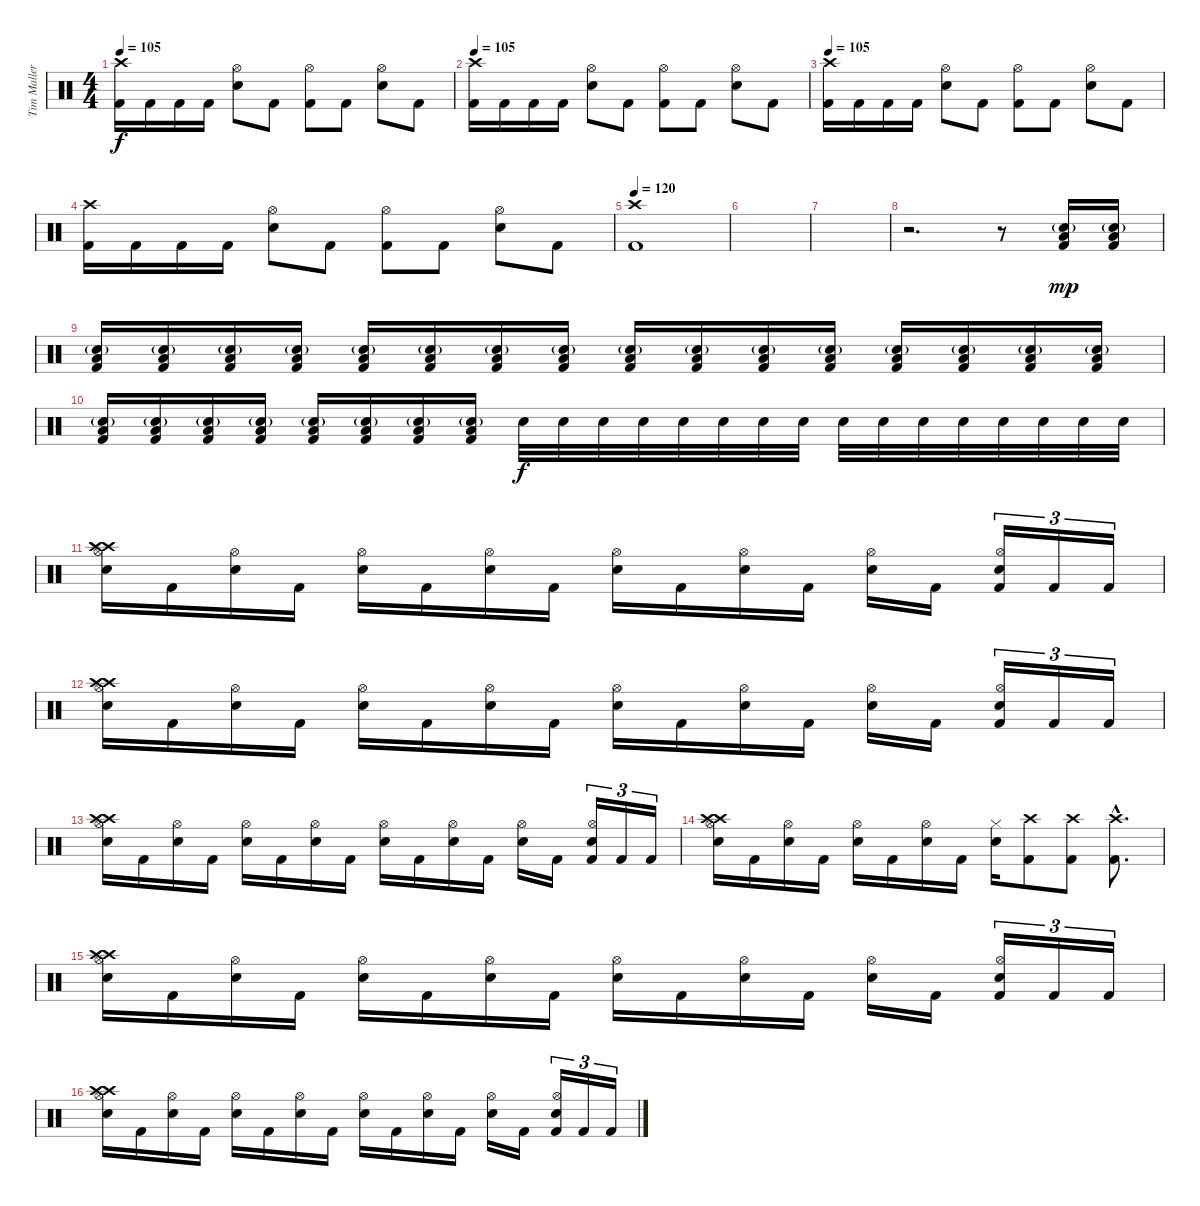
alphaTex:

\track ("Tim Mallere" "Tim Maller") {instrument percussion}
\staff {score}
\articulation defaults
\ts (4 4)
\tempo 105
\clef neutral
\ks c
("Crash high (hit)" "Kick (hit) 2").16{dy f} "Kick (hit) 2".16 "Kick (hit) 2".16 "Kick (hit) 2".16 ("Hi-Hat (open)" "Electric Snare (hit)").8 "Kick (hit) 2".8 ("Hi-Hat (open)" "Kick (hit) 2").8 "Kick (hit) 2".8 ("Hi-Hat (open)" "Electric Snare (hit)").8 "Kick (hit) 2".8 |
\tempo 105
("Crash high (hit)" "Kick (hit) 2").16 "Kick (hit) 2".16 "Kick (hit) 2".16 "Kick (hit) 2".16 ("Hi-Hat (open)" "Electric Snare (hit)").8 "Kick (hit) 2".8 ("Hi-Hat (open)" "Kick (hit) 2").8 "Kick (hit) 2".8 ("Hi-Hat (open)" "Electric Snare (hit)").8 "Kick (hit) 2".8 |
\tempo 105
("Crash high (hit)" "Kick (hit) 2").16 "Kick (hit) 2".16 "Kick (hit) 2".16 "Kick (hit) 2".16 ("Hi-Hat (open)" "Electric Snare (hit)").8 "Kick (hit) 2".8 ("Hi-Hat (open)" "Kick (hit) 2").8 "Kick (hit) 2".8 ("Hi-Hat (open)" "Electric Snare (hit)").8 "Kick (hit) 2".8 |
("Crash high (hit)" "Kick (hit) 2").16 "Kick (hit) 2".16 "Kick (hit) 2".16 "Kick (hit) 2".16 ("Hi-Hat (open)" "Electric Snare (hit)").8 "Kick (hit) 2".8 ("Hi-Hat (open)" "Kick (hit) 2").8 "Kick (hit) 2".8 ("Hi-Hat (open)" "Electric Snare (hit)").8 "Kick (hit) 2".8 |
\tempo 120
("Crash high (hit)" "Kick (hit) 2").1 |
|
|
r.2{d} r.8 ("Low Floor Tom (hit)" "Electric Snare (hit)"{g} "Kick (hit) 2").16{dy mp} ("Low Floor Tom (hit)" "Electric Snare (hit)"{g} "Kick (hit) 2").16 |
("Low Floor Tom (hit)" "Electric Snare (hit)"{g} "Kick (hit) 2").16 ("Low Floor Tom (hit)" "Electric Snare (hit)"{g} "Kick (hit) 2").16 ("Low Floor Tom (hit)" "Electric Snare (hit)"{g} "Kick (hit) 2").16 ("Low Floor Tom (hit)" "Electric Snare (hit)"{g} "Kick (hit) 2").16 ("Low Floor Tom (hit)" "Electric Snare (hit)"{g} "Kick (hit) 2").16 ("Low Floor Tom (hit)" "Electric Snare (hit)"{g} "Kick (hit) 2").16 ("Low Floor Tom (hit)" "Electric Snare (hit)"{g} "Kick (hit) 2").16 ("Low Floor Tom (hit)" "Electric Snare (hit)"{g} "Kick (hit) 2").16 ("Low Floor Tom (hit)" "Electric Snare (hit)"{g} "Kick (hit) 2").16 ("Low Floor Tom (hit)" "Electric Snare (hit)"{g} "Kick (hit) 2").16 ("Low Floor Tom (hit)" "Electric Snare (hit)"{g} "Kick (hit) 2").16 ("Low Floor Tom (hit)" "Electric Snare (hit)"{g} "Kick (hit) 2").16 ("Low Floor Tom (hit)" "Electric Snare (hit)"{g} "Kick (hit) 2").16 ("Low Floor Tom (hit)" "Electric Snare (hit)"{g} "Kick (hit) 2").16 ("Low Floor Tom (hit)" "Electric Snare (hit)"{g} "Kick (hit) 2").16 ("Low Floor Tom (hit)" "Electric Snare (hit)"{g} "Kick (hit) 2").16 |
("Low Floor Tom (hit)" "Electric Snare (hit)"{g} "Kick (hit) 2").16 ("Low Floor Tom (hit)" "Electric Snare (hit)"{g} "Kick (hit) 2").16 ("Low Floor Tom (hit)" "Electric Snare (hit)"{g} "Kick (hit) 2").16 ("Low Floor Tom (hit)" "Electric Snare (hit)"{g} "Kick (hit) 2").16 ("Low Floor Tom (hit)" "Electric Snare (hit)"{g} "Kick (hit) 2").16 ("Low Floor Tom (hit)" "Electric Snare (hit)"{g} "Kick (hit) 2").16 ("Low Floor Tom (hit)" "Electric Snare (hit)"{g} "Kick (hit) 2").16 ("Low Floor Tom (hit)" "Electric Snare (hit)"{g} "Kick (hit) 2").16 "Electric Snare (hit)".32{dy f} "Electric Snare (hit)".32 "Electric Snare (hit)".32 "Electric Snare (hit)".32 "Electric Snare (hit)".32 "Electric Snare (hit)".32 "Electric Snare (hit)".32 "Electric Snare (hit)".32 "Electric Snare (hit)".32 "Electric Snare (hit)".32 "Electric Snare (hit)".32 "Electric Snare (hit)".32 "Electric Snare (hit)".32 "Electric Snare (hit)".32 "Electric Snare (hit)".32 "Electric Snare (hit)".32 |
("Crash high (hit)" "Hi-Hat (open)" "Electric Snare (hit)" "Crash high (hit)").16 "Kick (hit) 2".16 ("Hi-Hat (open)" "Electric Snare (hit)").16 "Kick (hit) 2".16 ("Hi-Hat (open)" "Electric Snare (hit)").16 "Kick (hit) 2".16 ("Hi-Hat (open)" "Electric Snare (hit)").16 "Kick (hit) 2".16 ("Hi-Hat (open)" "Electric Snare (hit)").16 "Kick (hit) 2".16 ("Hi-Hat (open)" "Electric Snare (hit)").16 "Kick (hit) 2".16 ("Hi-Hat (open)" "Electric Snare (hit)").16 "Kick (hit) 2".16 ("Hi-Hat (open)" "Electric Snare (hit)" "Kick (hit) 2").16{tu (3 2)} "Kick (hit) 2".16{tu (3 2)} "Kick (hit) 2".16{tu (3 2)} |
("Crash high (hit)" "Hi-Hat (open)" "Electric Snare (hit)" "Crash high (hit)").16 "Kick (hit) 2".16 ("Hi-Hat (open)" "Electric Snare (hit)").16 "Kick (hit) 2".16 ("Hi-Hat (open)" "Electric Snare (hit)").16 "Kick (hit) 2".16 ("Hi-Hat (open)" "Electric Snare (hit)").16 "Kick (hit) 2".16 ("Hi-Hat (open)" "Electric Snare (hit)").16 "Kick (hit) 2".16 ("Hi-Hat (open)" "Electric Snare (hit)").16 "Kick (hit) 2".16 ("Hi-Hat (open)" "Electric Snare (hit)").16 "Kick (hit) 2".16 ("Hi-Hat (open)" "Electric Snare (hit)" "Kick (hit) 2").16{tu (3 2)} "Kick (hit) 2".16{tu (3 2)} "Kick (hit) 2".16{tu (3 2)} |
("Crash high (hit)" "Hi-Hat (open)" "Electric Snare (hit)" "Crash high (hit)").16 "Kick (hit) 2".16 ("Hi-Hat (open)" "Electric Snare (hit)").16 "Kick (hit) 2".16 ("Hi-Hat (open)" "Electric Snare (hit)").16 "Kick (hit) 2".16 ("Hi-Hat (open)" "Electric Snare (hit)").16 "Kick (hit) 2".16 ("Hi-Hat (open)" "Electric Snare (hit)").16 "Kick (hit) 2".16 ("Hi-Hat (open)" "Electric Snare (hit)").16 "Kick (hit) 2".16 ("Hi-Hat (open)" "Electric Snare (hit)").16 "Kick (hit) 2".16 ("Hi-Hat (open)" "Electric Snare (hit)" "Kick (hit) 2").16{tu (3 2)} "Kick (hit) 2".16{tu (3 2)} "Kick (hit) 2".16{tu (3 2)} |
("Crash high (hit)" "Hi-Hat (open)" "Electric Snare (hit)" "Crash high (hit)").16 "Kick (hit) 2".16 ("Hi-Hat (open)" "Electric Snare (hit)").16 "Kick (hit) 2".16 ("Hi-Hat (open)" "Electric Snare (hit)").16 "Kick (hit) 2".16 ("Hi-Hat (open)" "Electric Snare (hit)").16 "Kick (hit) 2".16 ("Hi-Hat (closed)" "Electric Snare (hit)").16 ("Crash high (hit)" "Kick (hit) 2").8 ("Crash high (hit)" "Kick (hit) 2").8 ("Crash high (hit)"{hac} "Kick (hit) 2"{hac}).8{d} |
("Crash high (hit)" "Hi-Hat (open)" "Electric Snare (hit)" "Crash high (hit)").16 "Kick (hit) 2".16 ("Hi-Hat (open)" "Electric Snare (hit)").16 "Kick (hit) 2".16 ("Hi-Hat (open)" "Electric Snare (hit)").16 "Kick (hit) 2".16 ("Hi-Hat (open)" "Electric Snare (hit)").16 "Kick (hit) 2".16 ("Hi-Hat (open)" "Electric Snare (hit)").16 "Kick (hit) 2".16 ("Hi-Hat (open)" "Electric Snare (hit)").16 "Kick (hit) 2".16 ("Hi-Hat (open)" "Electric Snare (hit)").16 "Kick (hit) 2".16 ("Hi-Hat (open)" "Electric Snare (hit)" "Kick (hit) 2").16{tu (3 2)} "Kick (hit) 2".16{tu (3 2)} "Kick (hit) 2".16{tu (3 2)} |
("Crash high (hit)" "Hi-Hat (open)" "Electric Snare (hit)" "Crash high (hit)").16 "Kick (hit) 2".16 ("Hi-Hat (open)" "Electric Snare (hit)").16 "Kick (hit) 2".16 ("Hi-Hat (open)" "Electric Snare (hit)").16 "Kick (hit) 2".16 ("Hi-Hat (open)" "Electric Snare (hit)").16 "Kick (hit) 2".16 ("Hi-Hat (open)" "Electric Snare (hit)").16 "Kick (hit) 2".16 ("Hi-Hat (open)" "Electric Snare (hit)").16 "Kick (hit) 2".16 ("Hi-Hat (open)" "Electric Snare (hit)").16 "Kick (hit) 2".16 ("Hi-Hat (open)" "Electric Snare (hit)" "Kick (hit) 2").16{tu (3 2)} "Kick (hit) 2".16{tu (3 2)} "Kick (hit) 2".16{tu (3 2)}
